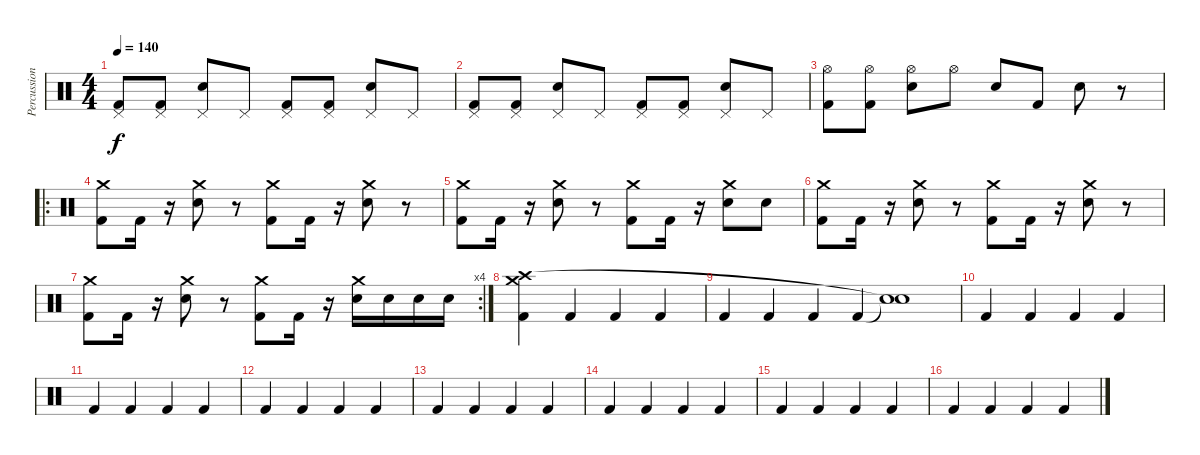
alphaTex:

\track ("Percussion" "Percussion") {instrument percussion}
\staff {score}
\articulation defaults
\ts (4 4)
\tempo 140
\clef neutral
\ks c
("Pedal Hi-Hat (hit)" "Kick (hit) 2").8{dy f} ("Pedal Hi-Hat (hit)" "Kick (hit) 2").8 ("Pedal Hi-Hat (hit)" "Snare (hit) 2").8 "Pedal Hi-Hat (hit)".8 ("Pedal Hi-Hat (hit)" "Kick (hit) 2").8 ("Pedal Hi-Hat (hit)" "Kick (hit) 2").8 ("Pedal Hi-Hat (hit)" "Snare (hit) 2").8 "Pedal Hi-Hat (hit)".8 |
("Pedal Hi-Hat (hit)" "Kick (hit) 2").8 ("Pedal Hi-Hat (hit)" "Kick (hit) 2").8 ("Pedal Hi-Hat (hit)" "Snare (hit) 2").8 "Pedal Hi-Hat (hit)".8 ("Pedal Hi-Hat (hit)" "Kick (hit) 2").8 ("Pedal Hi-Hat (hit)" "Kick (hit) 2").8 ("Pedal Hi-Hat (hit)" "Snare (hit) 2").8 "Pedal Hi-Hat (hit)".8 |
("Hi-Hat (open)" "Kick (hit) 2").8 ("Hi-Hat (open)" "Kick (hit) 2").8 ("Hi-Hat (open)" "Snare (hit) 2").8 "Hi-Hat (open)".8 "Snare (hit) 2".8 "Kick (hit) 2".8 "Snare (hit) 2".8 r.8 |
\ro
("Crash medium (hit)" "Kick (hit) 2").8 "Kick (hit) 2".16 r.16 ("Crash medium (hit)" "Snare (hit) 2").8 r.8 ("Crash medium (hit)" "Kick (hit) 2").8 "Kick (hit) 2".16 r.16 ("Crash medium (hit)" "Snare (hit) 2").8 r.8 |
("Crash medium (hit)" "Kick (hit) 2").8 "Kick (hit) 2".16 r.16 ("Crash medium (hit)" "Snare (hit) 2").8 r.8 ("Crash medium (hit)" "Kick (hit) 2").8 "Kick (hit) 2".16 r.16 ("Crash medium (hit)" "Snare (hit) 2").8 "Snare (hit) 2".8 |
("Crash medium (hit)" "Kick (hit) 2").8 "Kick (hit) 2".16 r.16 ("Crash medium (hit)" "Snare (hit) 2").8 r.8 ("Crash medium (hit)" "Kick (hit) 2").8 "Kick (hit) 2".16 r.16 ("Crash medium (hit)" "Snare (hit) 2").8 r.8 |
\rc 4
("Crash medium (hit)" "Kick (hit) 2").8 "Kick (hit) 2".16 r.16 ("Crash medium (hit)" "Snare (hit) 2").8 r.8 ("Crash medium (hit)" "Kick (hit) 2").8 "Kick (hit) 2".16 r.16 ("Crash medium (hit)" "Snare (hit) 2").16 "Snare (hit) 2".16 "Snare (hit) 2".16 "Snare (hit) 2".16 |
("Crash medium (hit)" "Crash high (hit)" "Kick (hit) 2").4 "Kick (hit) 2".4 "Kick (hit) 2".4 "Kick (hit) 2".4 |
"Kick (hit) 2".4 "Kick (hit) 2".4 "Kick (hit) 2".4 "Kick (hit) 2".4 ("Snare (hit)"{t} "Snare (hit)"{t}).1 |
"Kick (hit) 2".4 "Kick (hit) 2".4 "Kick (hit) 2".4 "Kick (hit) 2".4 |
"Kick (hit) 2".4 "Kick (hit) 2".4 "Kick (hit) 2".4 "Kick (hit) 2".4 |
"Kick (hit) 2".4 "Kick (hit) 2".4 "Kick (hit) 2".4 "Kick (hit) 2".4 |
"Kick (hit) 2".4 "Kick (hit) 2".4 "Kick (hit) 2".4 "Kick (hit) 2".4 |
"Kick (hit) 2".4 "Kick (hit) 2".4 "Kick (hit) 2".4 "Kick (hit) 2".4 |
"Kick (hit) 2".4 "Kick (hit) 2".4 "Kick (hit) 2".4 "Kick (hit) 2".4 |
"Kick (hit) 2".4 "Kick (hit) 2".4 "Kick (hit) 2".4 "Kick (hit) 2".4
